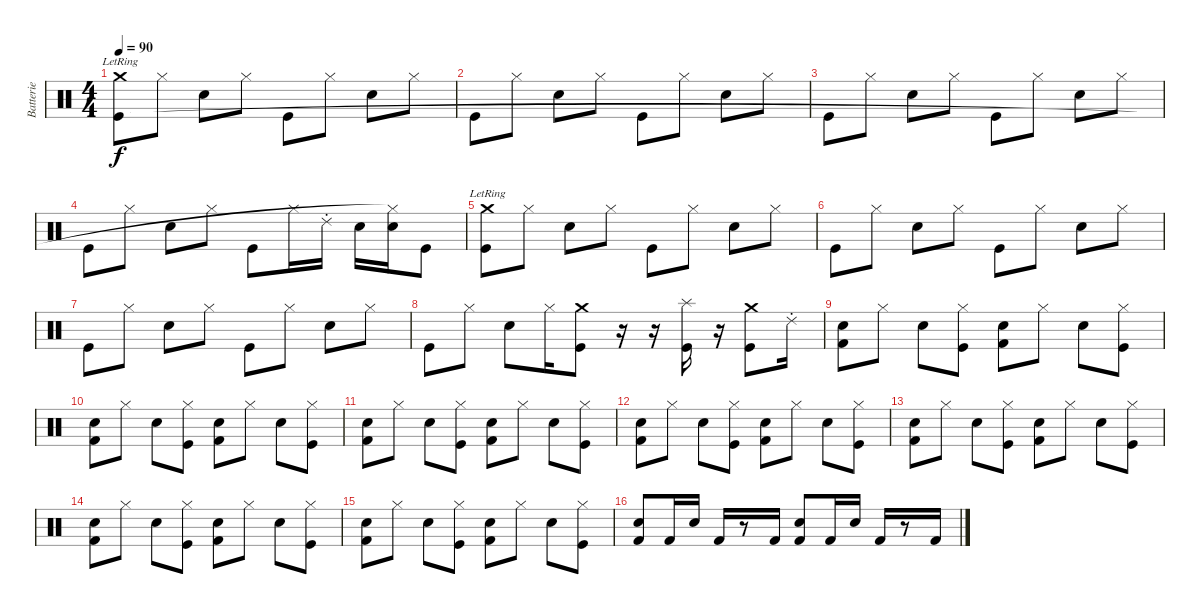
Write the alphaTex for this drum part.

\track ("Batterie" "Batterie") {instrument percussion}
\staff {score}
\articulation defaults
\ts (4 4)
\tempo 90
\clef neutral
\ks c
("Crash medium (hit)"{lr} "Kick (hit)").8{dy f} "Hi-Hat (closed)".8 "Metronome (bell)".8 "Hi-Hat (closed)".8 "Kick (hit)".8 "Hi-Hat (closed)".8 "Metronome (bell)".8 "Hi-Hat (closed)".8 |
"Kick (hit)".8 "Hi-Hat (closed)".8 "Metronome (bell)".8 "Hi-Hat (closed)".8 "Kick (hit)".8 "Hi-Hat (closed)".8 "Metronome (bell)".8 "Hi-Hat (closed)".8 |
"Kick (hit)".8 "Hi-Hat (closed)".8 "Metronome (bell)".8 "Hi-Hat (closed)".8 "Kick (hit)".8 "Hi-Hat (closed)".8 "Metronome (bell)".8 "Hi-Hat (closed)".8 |
"Kick (hit)".8 "Hi-Hat (closed)".8 "Metronome (bell)".8 "Hi-Hat (closed)".8 "Kick (hit)".8 "Hi-Hat (closed)".16 "Ride (choke) 2".16 "Metronome (bell)".16 ("Metronome (bell)" "Hi-Hat (closed)"{t}).16 "Kick (hit)".8 |
("Crash medium (hit)"{lr} "Kick (hit)").8 "Hi-Hat (closed)".8 "Metronome (bell)".8 "Hi-Hat (closed)".8 "Kick (hit)".8 "Hi-Hat (closed)".8 "Metronome (bell)".8 "Hi-Hat (closed)".8 |
"Kick (hit)".8 "Hi-Hat (closed)".8 "Metronome (bell)".8 "Hi-Hat (closed)".8 "Kick (hit)".8 "Hi-Hat (closed)".8 "Metronome (bell)".8 "Hi-Hat (closed)".8 |
"Kick (hit)".8 "Hi-Hat (closed)".8 "Metronome (bell)".8 "Hi-Hat (closed)".8 "Kick (hit)".8 "Hi-Hat (closed)".8 "Metronome (bell)".8 "Hi-Hat (closed)".8 |
"Kick (hit)".8 "Hi-Hat (closed)".8 "Metronome (bell)".8 "Hi-Hat (closed)".16 ("Crash medium (hit)" "Kick (hit)").8 r.16 r.16 ("Splash (hit)" "Kick (hit)").16 r.16 ("Crash medium (hit)" "Kick (hit)").8 "Ride (choke) 2".16 |
("Metronome (bell)" "Kick (hit) 2").8 "Hi-Hat (closed)".8 "Metronome (bell)".8 ("Hi-Hat (closed)" "Kick (hit)").8 ("Metronome (bell)" "Kick (hit) 2").8 "Hi-Hat (closed)".8 "Metronome (bell)".8 ("Hi-Hat (closed)" "Kick (hit)").8 |
("Metronome (bell)" "Kick (hit) 2").8 "Hi-Hat (closed)".8 "Metronome (bell)".8 ("Hi-Hat (closed)" "Kick (hit)").8 ("Metronome (bell)" "Kick (hit) 2").8 "Hi-Hat (closed)".8 "Metronome (bell)".8 ("Hi-Hat (closed)" "Kick (hit)").8 |
("Metronome (bell)" "Kick (hit) 2").8 "Hi-Hat (closed)".8 "Metronome (bell)".8 ("Hi-Hat (closed)" "Kick (hit)").8 ("Metronome (bell)" "Kick (hit) 2").8 "Hi-Hat (closed)".8 "Metronome (bell)".8 ("Hi-Hat (closed)" "Kick (hit)").8 |
("Metronome (bell)" "Kick (hit) 2").8 "Hi-Hat (closed)".8 "Metronome (bell)".8 ("Hi-Hat (closed)" "Kick (hit)").8 ("Metronome (bell)" "Kick (hit) 2").8 "Hi-Hat (closed)".8 "Metronome (bell)".8 ("Hi-Hat (closed)" "Kick (hit)").8 |
("Metronome (bell)" "Kick (hit) 2").8 "Hi-Hat (closed)".8 "Metronome (bell)".8 ("Hi-Hat (closed)" "Kick (hit)").8 ("Metronome (bell)" "Kick (hit) 2").8 "Hi-Hat (closed)".8 "Metronome (bell)".8 ("Hi-Hat (closed)" "Kick (hit)").8 |
("Metronome (bell)" "Kick (hit) 2").8 "Hi-Hat (closed)".8 "Metronome (bell)".8 ("Hi-Hat (closed)" "Kick (hit)").8 ("Metronome (bell)" "Kick (hit) 2").8 "Hi-Hat (closed)".8 "Metronome (bell)".8 ("Hi-Hat (closed)" "Kick (hit)").8 |
("Metronome (bell)" "Kick (hit) 2").8 "Hi-Hat (closed)".8 "Metronome (bell)".8 ("Hi-Hat (closed)" "Kick (hit)").8 ("Metronome (bell)" "Kick (hit) 2").8 "Hi-Hat (closed)".8 "Metronome (bell)".8 ("Hi-Hat (closed)" "Kick (hit)").8 |
("Metronome (bell)" "Kick (hit) 2").8{volume 0} "Kick (hit) 2".16 "Metronome (bell)".16 "Kick (hit) 2".16 r.8 "Kick (hit) 2".16 ("Metronome (bell)" "Kick (hit) 2").8 "Kick (hit) 2".16 "Metronome (bell)".16 "Kick (hit) 2".16 r.8 "Kick (hit) 2".16
